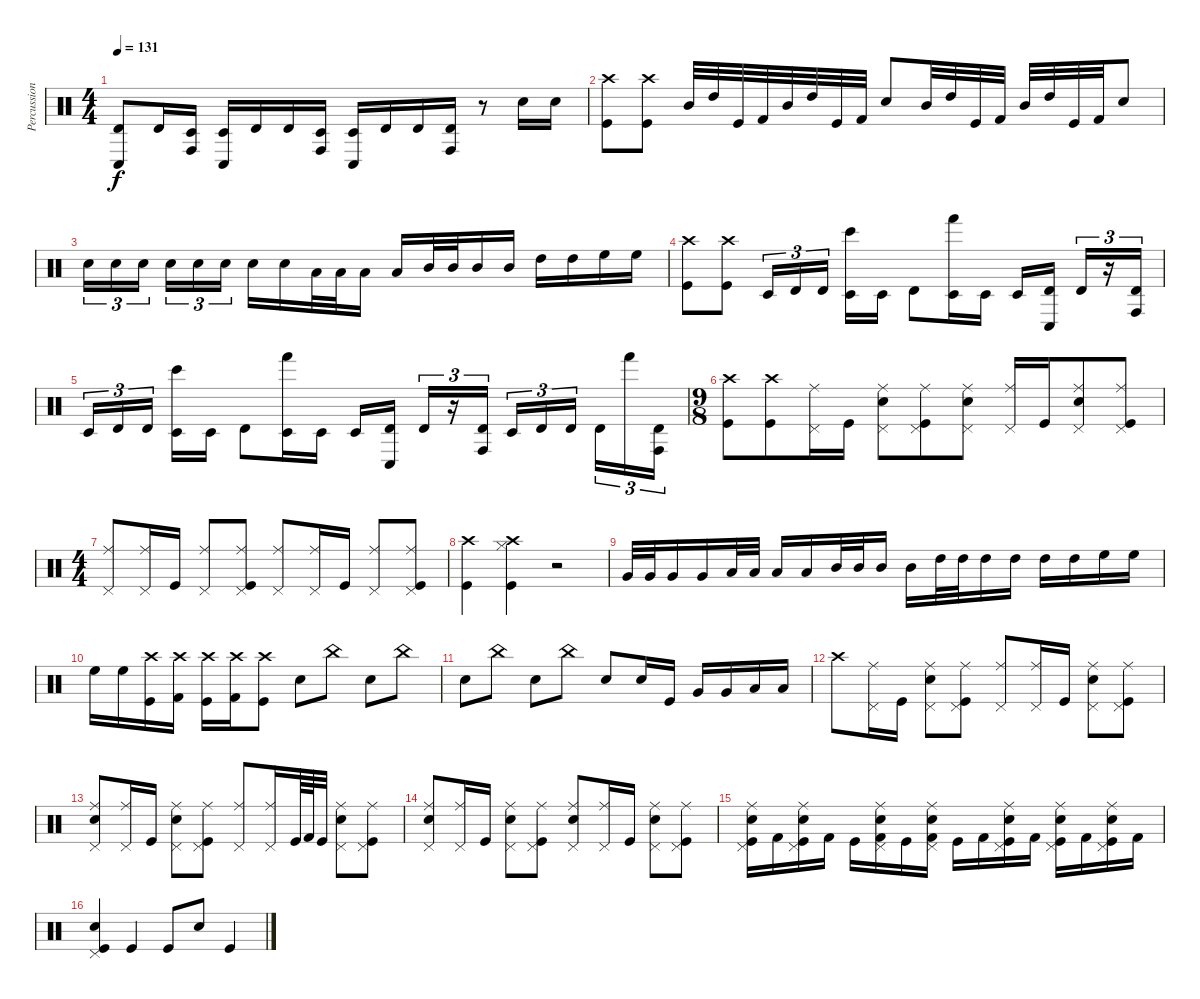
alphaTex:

\track ("Percussion" "Percussion") {instrument percussion}
\staff {score}
\articulation defaults
\ts (4 4)
\tempo 131
\clef neutral
\ks c
("Conga low (hit)" "Timbale high (hit)").8{dy f} "Timbale high (hit)".16 ("Conga high (hit)" "Timbale low (hit)").16 ("Conga low (hit)" "Timbale low (hit)").16 "Timbale high (hit)".16 "Timbale high (hit)".16 ("Conga high (hit)" "Timbale low (hit)").16 ("Conga low (hit)" "Timbale low (hit)").16 "Timbale high (hit)".16 "Timbale high (hit)".16 ("Conga high (hit)" "Timbale high (hit)").16 r.8 "Snare (hit) 2".16 "Snare (hit) 2".16 |
("Crash high (hit)" "Kick (hit)").8 ("Crash high (hit)" "Kick (hit)").8 "Mid Tom (hit)".32 "High Tom (hit)".32 "Kick (hit)".32 "Kick (hit) 2".32 "Mid Tom (hit)".32 "High Tom (hit)".32 "Kick (hit)".32 "Kick (hit) 2".32 "Hand Clap (hit)".8 "Mid Tom (hit)".32 "High Tom (hit)".32 "Kick (hit)".32 "Kick (hit) 2".32 "Mid Tom (hit)".32 "High Tom (hit)".32 "Kick (hit)".32 "Kick (hit) 2".32 "Snare (hit) 2".8 |
"Snare (hit) 2".16{tu (3 2)} "Snare (hit) 2".16{tu (3 2)} "Snare (hit) 2".16{tu (3 2)} "Snare (hit) 2".16{tu (3 2)} "Snare (hit) 2".16{tu (3 2)} "Snare (hit) 2".16{tu (3 2)} "Snare (hit) 2".16 "Snare (hit) 2".16 "Low Tom (hit)".32 "Low Tom (hit)".32 "Low Tom (hit)".16 "Low Tom (hit)".16 "Mid Tom (hit)".32 "Mid Tom (hit)".32 "Mid Tom (hit)".16 "Mid Tom (hit)".16 "High Tom (hit)".16 "High Tom (hit)".16 "High Floor Tom (hit)".16 "High Floor Tom (hit)".16 |
("Crash high (hit)" "Kick (hit)").8 ("Crash high (hit)" "Kick (hit)").8 "Timbale low (hit)".16{tu (3 2)} "Timbale high (hit)".16{tu (3 2)} "Timbale high (hit)".16{tu (3 2)} ("Bongo High (hit)" "Timbale low (hit)").16 "Timbale low (hit)".16 "Timbale high (hit)".8 ("Hand (hit)" "Timbale low (hit)").16 "Timbale low (hit)".16 "Timbale low (hit)".16 ("Conga low (hit)" "Timbale high (hit)").16 "Timbale high (hit)".16{tu (3 2)} r.16{tu (3 2)} ("Conga high (hit)" "Timbale high (hit)").16{tu (3 2)} |
"Timbale low (hit)".16{tu (3 2)} "Timbale high (hit)".16{tu (3 2)} "Timbale high (hit)".16{tu (3 2)} ("Bongo High (hit)" "Timbale low (hit)").16 "Timbale low (hit)".16 "Timbale high (hit)".8 ("Hand (hit)" "Timbale low (hit)").16 "Timbale low (hit)".16 "Timbale low (hit)".16 ("Conga low (hit)" "Timbale high (hit)").16 "Timbale high (hit)".16{tu (3 2)} r.16{tu (3 2)} ("Conga high (hit)" "Timbale high (hit)").16{tu (3 2)} "Timbale low (hit)".16{tu (3 2)} "Timbale high (hit)".16{tu (3 2)} "Timbale high (hit)".16{tu (3 2)} "Timbale high (hit)".16{tu (3 2)} "Hand (hit)".16{tu (3 2)} ("Conga high (hit)" "Timbale high (hit)").16{tu (3 2)} |
\ts (9 8)
("Crash high (hit)" "Kick (hit)").8 ("Crash high (hit)" "Kick (hit)").8 ("Pedal Hi-Hat (hit)" "Ride (middle)").16 "Kick (hit)".16 ("Pedal Hi-Hat (hit)" "Ride (middle)" "Snare (hit) 2").8 ("Pedal Hi-Hat (hit)" "Ride (middle)" "Kick (hit)").8 ("Pedal Hi-Hat (hit)" "Ride (middle)" "Snare (hit) 2").8 ("Pedal Hi-Hat (hit)" "Ride (middle)").16 "Kick (hit)".16 ("Pedal Hi-Hat (hit)" "Ride (middle)" "Snare (hit) 2").8 ("Pedal Hi-Hat (hit)" "Ride (middle)" "Kick (hit)").8 |
\ts (4 4)
("Pedal Hi-Hat (hit)" "Ride (middle)").8 ("Pedal Hi-Hat (hit)" "Ride (middle)").16 "Kick (hit)".16 ("Pedal Hi-Hat (hit)" "Ride (middle)").8 ("Pedal Hi-Hat (hit)" "Ride (middle)" "Kick (hit)").8 ("Pedal Hi-Hat (hit)" "Ride (middle)").8 ("Pedal Hi-Hat (hit)" "Ride (middle)").16 "Kick (hit)".16 ("Pedal Hi-Hat (hit)" "Ride (middle)").8 ("Pedal Hi-Hat (hit)" "Ride (middle)" "Kick (hit)").8 |
("Crash high (hit)" "Kick (hit)").4 ("Crash high (hit)" "Hi-Hat (closed)" "Kick (hit)").4 r.2 |
"Very Low Tom (hit)".32 "Very Low Tom (hit)".32 "Very Low Tom (hit)".16 "Very Low Tom (hit)".16 "Low Tom (hit)".32 "Low Tom (hit)".32 "Low Tom (hit)".16 "Low Tom (hit)".16 "Mid Tom (hit)".32 "Mid Tom (hit)".32 "Mid Tom (hit)".16 "Mid Tom (hit)".16 "High Tom (hit)".32 "High Tom (hit)".32 "High Tom (hit)".16 "High Tom (hit)".16 "High Tom (hit)".16 "High Tom (hit)".16 "High Floor Tom (hit)".16 "High Floor Tom (hit)".16 |
"High Floor Tom (hit)".16 "High Floor Tom (hit)".16 ("Kick (hit)" "Crash high (hit)").16 ("Kick (hit) 2" "Crash high (hit)").16 ("Kick (hit)" "Crash high (hit)").16 ("Kick (hit) 2" "Crash high (hit)").16 ("Kick (hit)" "Crash high (hit)").8 "Snare (hit) 2".8 "China (hit)".8 "Snare (hit) 2".8 "China (hit)".8 |
"Snare (hit) 2".8 "China (hit)".8 "Snare (hit) 2".8 "China (hit)".8 "Snare (hit) 2".8 "Snare (hit) 2".16 "Kick (hit)".16 "Very Low Tom (hit)".16 "Very Low Tom (hit)".16 "Low Tom (hit)".16 "Low Tom (hit)".16 |
"Crash high (hit)".8 ("Pedal Hi-Hat (hit)" "Ride (middle)").16 "Kick (hit)".16 ("Pedal Hi-Hat (hit)" "Ride (middle)" "Snare (hit) 2").8 ("Pedal Hi-Hat (hit)" "Ride (middle)" "Kick (hit)").8 ("Pedal Hi-Hat (hit)" "Ride (middle)").8 ("Pedal Hi-Hat (hit)" "Ride (middle)").16 "Kick (hit)".16 ("Pedal Hi-Hat (hit)" "Ride (middle)" "Snare (hit) 2").8 ("Pedal Hi-Hat (hit)" "Ride (middle)" "Kick (hit)").8 |
("Pedal Hi-Hat (hit)" "Ride (middle)" "Snare (hit) 2").8 ("Pedal Hi-Hat (hit)" "Ride (middle)").16 "Kick (hit)".16 ("Pedal Hi-Hat (hit)" "Ride (middle)" "Snare (hit) 2").8 ("Pedal Hi-Hat (hit)" "Ride (middle)" "Kick (hit)").8 ("Pedal Hi-Hat (hit)" "Ride (middle)").8 ("Pedal Hi-Hat (hit)" "Ride (middle)").16 "Kick (hit)".64 "Kick (hit) 2".64 "Kick (hit)".32 ("Pedal Hi-Hat (hit)" "Ride (middle)" "Snare (hit) 2").8 ("Pedal Hi-Hat (hit)" "Ride (middle)" "Kick (hit)").8 |
("Pedal Hi-Hat (hit)" "Ride (middle)" "Snare (hit) 2").8 ("Pedal Hi-Hat (hit)" "Ride (middle)").16 "Kick (hit)".16 ("Pedal Hi-Hat (hit)" "Ride (middle)" "Snare (hit) 2").8 ("Pedal Hi-Hat (hit)" "Ride (middle)" "Kick (hit)").8 ("Pedal Hi-Hat (hit)" "Ride (middle)" "Snare (hit) 2").8 ("Pedal Hi-Hat (hit)" "Ride (middle)").16 "Kick (hit)".16 ("Pedal Hi-Hat (hit)" "Ride (middle)" "Snare (hit) 2").8 ("Pedal Hi-Hat (hit)" "Ride (middle)" "Kick (hit)").8 |
("Snare (hit) 2" "Pedal Hi-Hat (hit)" "Ride (middle)" "Kick (hit)").16 "Kick (hit) 2".16 ("Snare (hit) 2" "Pedal Hi-Hat (hit)" "Ride (middle)" "Kick (hit)").16 "Kick (hit) 2".16 "Kick (hit)".16 ("Snare (hit) 2" "Pedal Hi-Hat (hit)" "Ride (middle)" "Kick (hit) 2").16 "Kick (hit)".16 ("Snare (hit) 2" "Pedal Hi-Hat (hit)" "Ride (middle)" "Kick (hit) 2").16 "Kick (hit)".16 "Kick (hit) 2".16 ("Snare (hit) 2" "Pedal Hi-Hat (hit)" "Ride (middle)" "Kick (hit)").16 "Kick (hit) 2".16 ("Snare (hit) 2" "Pedal Hi-Hat (hit)" "Ride (middle)" "Kick (hit)").16 "Kick (hit) 2".16 ("Snare (hit) 2" "Pedal Hi-Hat (hit)" "Ride (middle)" "Kick (hit)").16 "Kick (hit) 2".16 |
("Snare (hit) 2" "Kick (hit)" "Pedal Hi-Hat (hit)").4 "Kick (hit)".4 "Kick (hit)".8 "Snare (hit) 2".8 "Kick (hit)".4
